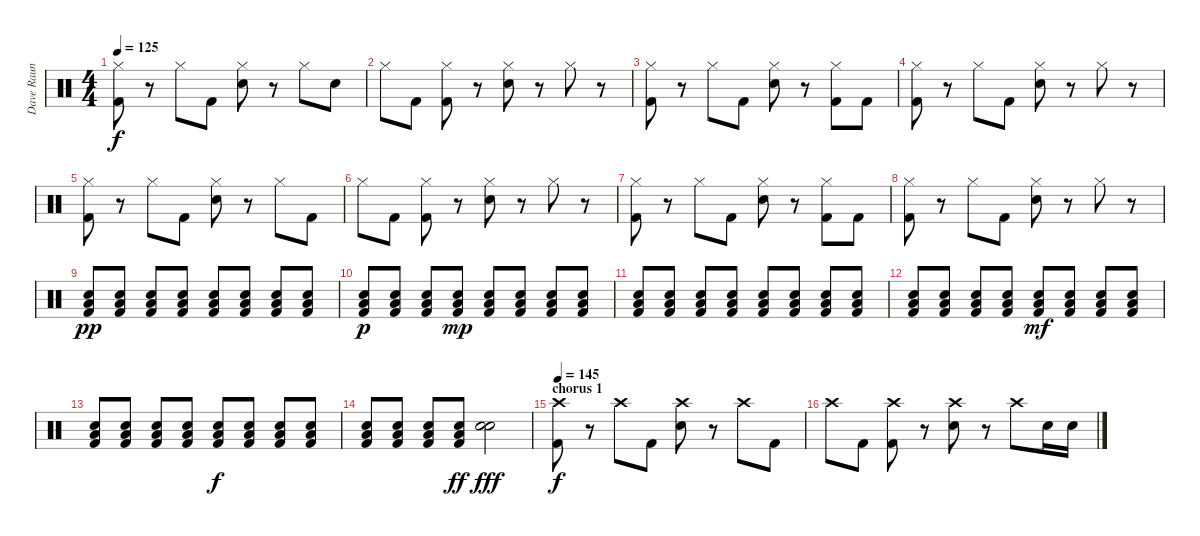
\track ("Dave Raun" "Dave Raun") {instrument percussion}
\staff {score}
\articulation defaults
\ts (4 4)
\tempo 125
\clef neutral
\ks c
("Hi-Hat (closed)" "Kick (hit) 2").8{dy f} r.8 "Hi-Hat (closed)".8 "Kick (hit) 2".8 ("Hi-Hat (closed)" "Electric Snare (hit)").8 r.8 "Hi-Hat (closed)".8 "Electric Snare (hit)".8 |
"Hi-Hat (closed)".8 "Kick (hit) 2".8 ("Hi-Hat (closed)" "Kick (hit) 2").8 r.8 ("Hi-Hat (closed)" "Electric Snare (hit)").8 r.8 "Hi-Hat (closed)".8 r.8 |
("Hi-Hat (closed)" "Kick (hit) 2").8 r.8 "Hi-Hat (closed)".8 "Kick (hit) 2".8 ("Hi-Hat (closed)" "Electric Snare (hit)").8 r.8 ("Hi-Hat (closed)" "Kick (hit) 2").8 "Kick (hit) 2".8 |
("Hi-Hat (closed)" "Kick (hit) 2").8 r.8 "Hi-Hat (closed)".8 "Kick (hit) 2".8 ("Hi-Hat (closed)" "Electric Snare (hit)").8 r.8 "Hi-Hat (closed)".8 r.8 |
("Hi-Hat (closed)" "Kick (hit) 2").8 r.8 "Hi-Hat (closed)".8 "Kick (hit) 2".8 ("Hi-Hat (closed)" "Electric Snare (hit)").8 r.8 "Hi-Hat (closed)".8 "Kick (hit) 2".8 |
"Hi-Hat (closed)".8 "Kick (hit) 2".8 ("Hi-Hat (closed)" "Kick (hit) 2").8 r.8 ("Hi-Hat (closed)" "Electric Snare (hit)").8 r.8 "Hi-Hat (closed)".8 r.8 |
("Hi-Hat (closed)" "Kick (hit) 2").8 r.8 "Hi-Hat (closed)".8 "Kick (hit) 2".8 ("Hi-Hat (closed)" "Electric Snare (hit)").8 r.8 ("Hi-Hat (closed)" "Kick (hit) 2").8 "Kick (hit) 2".8 |
("Hi-Hat (closed)" "Kick (hit) 2").8 r.8 "Hi-Hat (closed)".8 "Kick (hit) 2".8 ("Hi-Hat (closed)" "Electric Snare (hit)").8 r.8 "Hi-Hat (closed)".8 r.8 |
("Electric Snare (hit)" "Low Floor Tom (hit)" "Kick (hit) 2").8{dy pp} ("Electric Snare (hit)" "Low Floor Tom (hit)" "Kick (hit) 2").8 ("Electric Snare (hit)" "Low Floor Tom (hit)" "Kick (hit) 2").8 ("Electric Snare (hit)" "Low Floor Tom (hit)" "Kick (hit) 2").8 ("Electric Snare (hit)" "Low Floor Tom (hit)" "Kick (hit) 2").8 ("Electric Snare (hit)" "Low Floor Tom (hit)" "Kick (hit) 2").8 ("Electric Snare (hit)" "Low Floor Tom (hit)" "Kick (hit) 2").8 ("Electric Snare (hit)" "Low Floor Tom (hit)" "Kick (hit) 2").8 |
("Electric Snare (hit)" "Low Floor Tom (hit)" "Kick (hit) 2").8{dy p} ("Electric Snare (hit)" "Low Floor Tom (hit)" "Kick (hit) 2").8 ("Electric Snare (hit)" "Low Floor Tom (hit)" "Kick (hit) 2").8 ("Electric Snare (hit)" "Low Floor Tom (hit)" "Kick (hit) 2").8{dy mp} ("Electric Snare (hit)" "Low Floor Tom (hit)" "Kick (hit) 2").8 ("Electric Snare (hit)" "Low Floor Tom (hit)" "Kick (hit) 2").8 ("Electric Snare (hit)" "Low Floor Tom (hit)" "Kick (hit) 2").8 ("Electric Snare (hit)" "Low Floor Tom (hit)" "Kick (hit) 2").8 |
("Electric Snare (hit)" "Low Floor Tom (hit)" "Kick (hit) 2").8 ("Electric Snare (hit)" "Low Floor Tom (hit)" "Kick (hit) 2").8 ("Electric Snare (hit)" "Low Floor Tom (hit)" "Kick (hit) 2").8 ("Electric Snare (hit)" "Low Floor Tom (hit)" "Kick (hit) 2").8 ("Electric Snare (hit)" "Low Floor Tom (hit)" "Kick (hit) 2").8 ("Electric Snare (hit)" "Low Floor Tom (hit)" "Kick (hit) 2").8 ("Electric Snare (hit)" "Low Floor Tom (hit)" "Kick (hit) 2").8 ("Electric Snare (hit)" "Low Floor Tom (hit)" "Kick (hit) 2").8 |
("Electric Snare (hit)" "Low Tom (hit)" "Kick (hit) 2").8 ("Electric Snare (hit)" "Low Tom (hit)" "Kick (hit) 2").8 ("Electric Snare (hit)" "Low Tom (hit)" "Kick (hit) 2").8 ("Electric Snare (hit)" "Low Tom (hit)" "Kick (hit) 2").8 ("Electric Snare (hit)" "Low Tom (hit)" "Kick (hit) 2").8{dy mf} ("Electric Snare (hit)" "Low Tom (hit)" "Kick (hit) 2").8 ("Electric Snare (hit)" "Low Tom (hit)" "Kick (hit) 2").8 ("Electric Snare (hit)" "Low Tom (hit)" "Kick (hit) 2").8 |
("Electric Snare (hit)" "Low Tom (hit)" "Kick (hit) 2").8 ("Electric Snare (hit)" "Low Tom (hit)" "Kick (hit) 2").8 ("Electric Snare (hit)" "Low Tom (hit)" "Kick (hit) 2").8 ("Electric Snare (hit)" "Low Tom (hit)" "Kick (hit) 2").8 ("Electric Snare (hit)" "Low Tom (hit)" "Kick (hit) 2").8{dy f} ("Electric Snare (hit)" "Low Tom (hit)" "Kick (hit) 2").8 ("Electric Snare (hit)" "Low Tom (hit)" "Kick (hit) 2").8 ("Electric Snare (hit)" "Low Tom (hit)" "Kick (hit) 2").8 |
("Electric Snare (hit)" "Low Tom (hit)" "Kick (hit) 2").8 ("Electric Snare (hit)" "Low Tom (hit)" "Kick (hit) 2").8 ("Electric Snare (hit)" "Low Tom (hit)" "Kick (hit) 2").8 ("Electric Snare (hit)" "Low Tom (hit)" "Kick (hit) 2").8{dy ff} ("Electric Snare (hit)" "Electric Snare (hit)").2{dy fff} |
\section ("" "chorus 1")
\tempo 145
("Crash high (hit)" "Kick (hit) 2").8{dy f} r.8 "Crash high (hit)".8 "Kick (hit) 2".8 ("Crash high (hit)" "Electric Snare (hit)").8 r.8 "Crash high (hit)".8 "Kick (hit) 2".8 |
"Crash high (hit)".8 "Kick (hit) 2".8 ("Crash high (hit)" "Kick (hit) 2").8 r.8 ("Crash high (hit)" "Electric Snare (hit)").8 r.8 "Crash high (hit)".8 "Electric Snare (hit)".16 "Electric Snare (hit)".16
